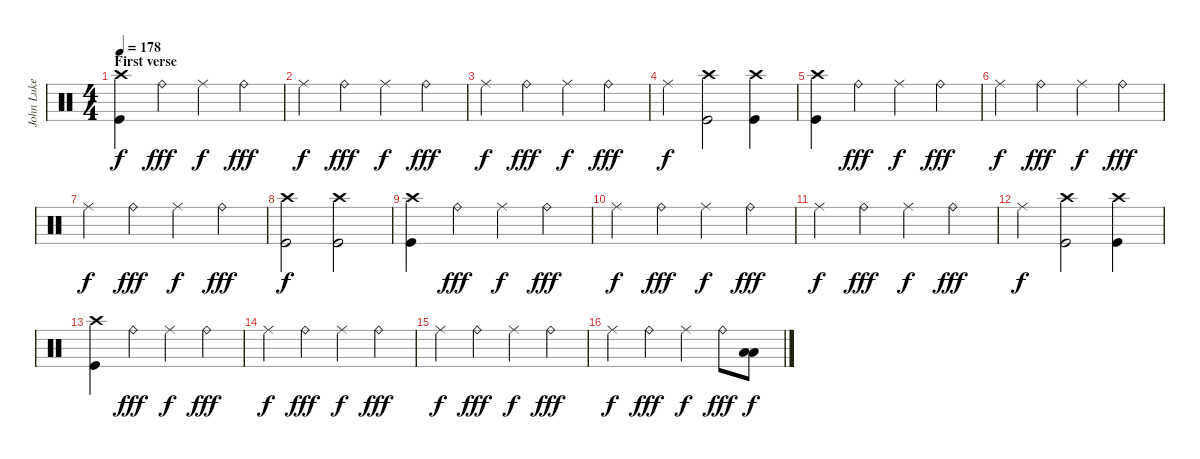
\track ("John Luke (Drums)" "John Luke ") {instrument percussion}
\staff {score}
\articulation defaults
\ts (4 4)
\section ("" "First verse")
\tempo 178
\clef neutral
\ks c
("Crash high (hit)" "Kick (hit)").4{dy f} "Ride (bell)".4{dy fff} "Ride (middle)".4{dy f} "Ride (bell)".4{dy fff} |
"Ride (middle)".4{dy f} "Ride (bell)".4{dy fff} "Ride (middle)".4{dy f} "Ride (bell)".4{dy fff} |
"Ride (middle)".4{dy f} "Ride (bell)".4{dy fff} "Ride (middle)".4{dy f} "Ride (bell)".4{dy fff} |
"Ride (middle)".4{dy f} ("Crash high (hit)" "Kick (hit)").2 ("Crash high (hit)" "Kick (hit)").4 |
("Crash high (hit)" "Kick (hit)").4 "Ride (bell)".4{dy fff} "Ride (middle)".4{dy f} "Ride (bell)".4{dy fff} |
"Ride (middle)".4{dy f} "Ride (bell)".4{dy fff} "Ride (middle)".4{dy f} "Ride (bell)".4{dy fff} |
"Ride (middle)".4{dy f} "Ride (bell)".4{dy fff} "Ride (middle)".4{dy f} "Ride (bell)".4{dy fff} |
("Crash high (hit)" "Kick (hit)").2{dy f} ("Crash high (hit)" "Kick (hit)").2 |
("Crash high (hit)" "Kick (hit)").4 "Ride (bell)".4{dy fff} "Ride (middle)".4{dy f} "Ride (bell)".4{dy fff} |
"Ride (middle)".4{dy f} "Ride (bell)".4{dy fff} "Ride (middle)".4{dy f} "Ride (bell)".4{dy fff} |
"Ride (middle)".4{dy f} "Ride (bell)".4{dy fff} "Ride (middle)".4{dy f} "Ride (bell)".4{dy fff} |
"Ride (middle)".4{dy f} ("Crash high (hit)" "Kick (hit)").2 ("Crash high (hit)" "Kick (hit)").4 |
("Crash high (hit)" "Kick (hit)").4 "Ride (bell)".4{dy fff} "Ride (middle)".4{dy f} "Ride (bell)".4{dy fff} |
"Ride (middle)".4{dy f} "Ride (bell)".4{dy fff} "Ride (middle)".4{dy f} "Ride (bell)".4{dy fff} |
"Ride (middle)".4{dy f} "Ride (bell)".4{dy fff} "Ride (middle)".4{dy f} "Ride (bell)".4{dy fff} |
"Ride (middle)".4{dy f} "Ride (bell)".4{dy fff} "Ride (middle)".4{dy f} "Ride (bell)".8{dy fff} ("Low Floor Tom (hit)" "Low Floor Tom (hit)").8{bu 120 dy f}
